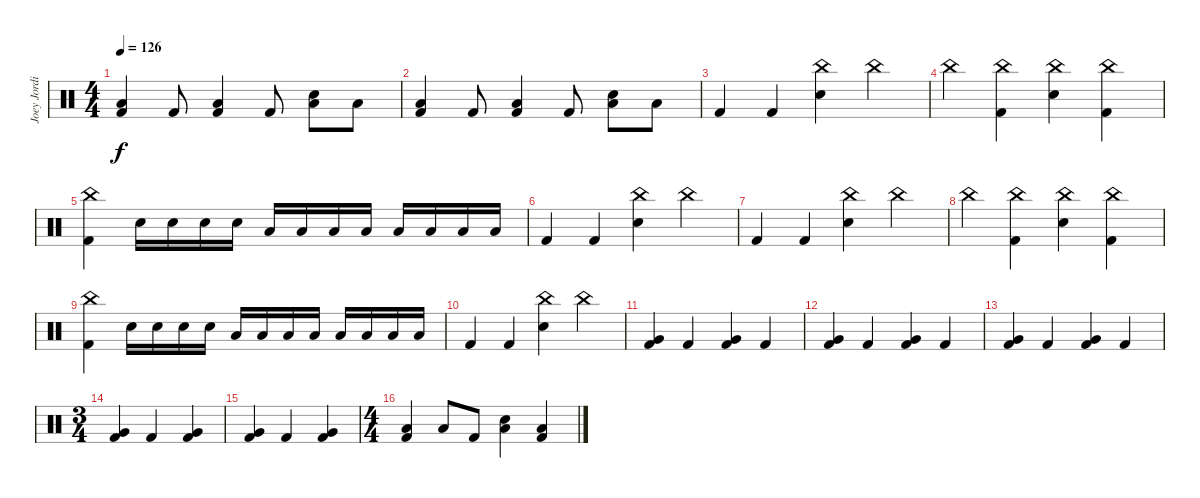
\track ("Joey Jordison" "Joey Jordi") {instrument percussion}
\staff {score}
\articulation defaults
\ts (4 4)
\tempo 126
\clef neutral
\ks c
("Low Tom (hit)" "Kick (hit) 2").4{dy f} "Kick (hit) 2".8 ("Low Tom (hit)" "Kick (hit) 2").4 "Kick (hit) 2".8 ("Low Tom (hit)" "Snare (hit) 2").8 "Low Tom (hit)".8 |
("Low Tom (hit)" "Kick (hit) 2").4 "Kick (hit) 2".8 ("Low Tom (hit)" "Kick (hit) 2").4 "Kick (hit) 2".8 ("Low Tom (hit)" "Snare (hit) 2").8 "Low Tom (hit)".8 |
"Kick (hit) 2".4 "Kick (hit) 2".4 ("China (hit)" "Snare (hit) 2").4 "China (hit)".4 |
"China (hit)".4 ("China (hit)" "Kick (hit) 2").4 ("China (hit)" "Snare (hit) 2").4 ("China (hit)" "Kick (hit) 2").4 |
("China (hit)" "Kick (hit) 2").4 "Snare (hit) 2".16 "Snare (hit) 2".16 "Snare (hit) 2".16 "Snare (hit) 2".16 "Low Tom (hit)".16 "Low Tom (hit)".16 "Low Tom (hit)".16 "Low Tom (hit)".16 "Low Tom (hit)".16 "Low Tom (hit)".16 "Low Tom (hit)".16 "Low Tom (hit)".16 |
"Kick (hit) 2".4 "Kick (hit) 2".4 ("China (hit)" "Snare (hit) 2").4 "China (hit)".4 |
"Kick (hit) 2".4 "Kick (hit) 2".4 ("China (hit)" "Snare (hit) 2").4 "China (hit)".4 |
"China (hit)".4 ("China (hit)" "Kick (hit) 2").4 ("China (hit)" "Snare (hit) 2").4 ("China (hit)" "Kick (hit) 2").4 |
("China (hit)" "Kick (hit) 2").4 "Snare (hit) 2".16 "Snare (hit) 2".16 "Snare (hit) 2".16 "Snare (hit) 2".16 "Low Tom (hit)".16 "Low Tom (hit)".16 "Low Tom (hit)".16 "Low Tom (hit)".16 "Low Tom (hit)".16 "Low Tom (hit)".16 "Low Tom (hit)".16 "Low Tom (hit)".16 |
"Kick (hit) 2".4 "Kick (hit) 2".4 ("China (hit)" "Snare (hit) 2").4 "China (hit)".4 |
("Kick (hit) 2" "Very Low Tom (hit)").4 "Kick (hit) 2".4 ("Kick (hit) 2" "Very Low Tom (hit)").4 "Kick (hit) 2".4 |
("Kick (hit) 2" "Very Low Tom (hit)").4 "Kick (hit) 2".4 ("Kick (hit) 2" "Very Low Tom (hit)").4 "Kick (hit) 2".4 |
("Kick (hit) 2" "Very Low Tom (hit)").4 "Kick (hit) 2".4 ("Kick (hit) 2" "Very Low Tom (hit)").4 "Kick (hit) 2".4 |
\ts (3 4)
("Kick (hit) 2" "Very Low Tom (hit)").4 "Kick (hit) 2".4 ("Kick (hit) 2" "Very Low Tom (hit)").4 |
("Kick (hit) 2" "Very Low Tom (hit)").4 "Kick (hit) 2".4 ("Kick (hit) 2" "Very Low Tom (hit)").4 |
\ts (4 4)
("Low Tom (hit)" "Kick (hit) 2").4 "Low Tom (hit)".8 "Kick (hit) 2".8 ("Low Tom (hit)" "Electric Snare (hit)").4 ("Low Tom (hit)" "Kick (hit) 2").4
